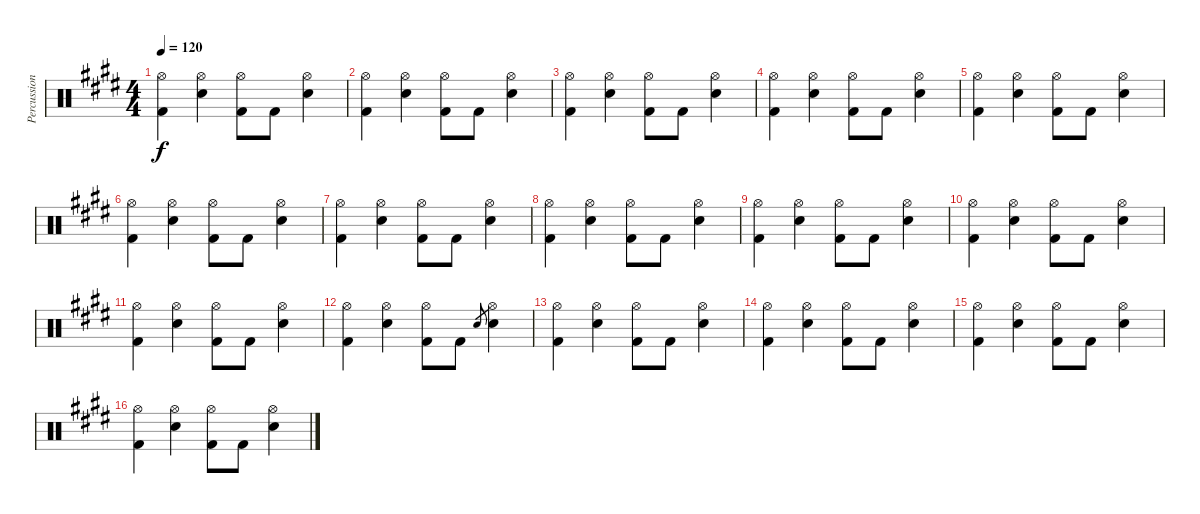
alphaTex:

\track ("Percussion" "Percussion") {instrument percussion}
\staff {score}
\articulation defaults
\ts (4 4)
\tempo 120
\clef neutral
\ks e
("Hi-Hat (open)" "Kick (hit) 2").4{dy f} ("Hi-Hat (open)" "Snare (hit) 2").4 ("Hi-Hat (open)" "Kick (hit) 2").8 "Kick (hit) 2".8 ("Hi-Hat (open)" "Snare (hit) 2").4 |
("Hi-Hat (open)" "Kick (hit) 2").4 ("Hi-Hat (open)" "Snare (hit) 2").4 ("Hi-Hat (open)" "Kick (hit) 2").8 "Kick (hit) 2".8 ("Hi-Hat (open)" "Snare (hit) 2").4 |
("Hi-Hat (open)" "Kick (hit) 2").4 ("Hi-Hat (open)" "Snare (hit) 2").4 ("Hi-Hat (open)" "Kick (hit) 2").8 "Kick (hit) 2".8 ("Hi-Hat (open)" "Snare (hit) 2").4 |
("Hi-Hat (open)" "Kick (hit) 2").4 ("Hi-Hat (open)" "Snare (hit) 2").4 ("Hi-Hat (open)" "Kick (hit) 2").8 "Kick (hit) 2".8 ("Hi-Hat (open)" "Snare (hit) 2").4 |
("Hi-Hat (open)" "Kick (hit) 2").4 ("Hi-Hat (open)" "Snare (hit) 2").4 ("Hi-Hat (open)" "Kick (hit) 2").8 "Kick (hit) 2".8 ("Hi-Hat (open)" "Snare (hit) 2").4 |
("Hi-Hat (open)" "Kick (hit) 2").4 ("Hi-Hat (open)" "Snare (hit) 2").4 ("Hi-Hat (open)" "Kick (hit) 2").8 "Kick (hit) 2".8 ("Hi-Hat (open)" "Snare (hit) 2").4 |
("Hi-Hat (open)" "Kick (hit) 2").4 ("Hi-Hat (open)" "Snare (hit) 2").4 ("Hi-Hat (open)" "Kick (hit) 2").8 "Kick (hit) 2".8 ("Hi-Hat (open)" "Snare (hit) 2").4 |
("Hi-Hat (open)" "Kick (hit) 2").4 ("Hi-Hat (open)" "Snare (hit) 2").4 ("Hi-Hat (open)" "Kick (hit) 2").8 "Kick (hit) 2".8 ("Hi-Hat (open)" "Snare (hit) 2").4 |
\ks c#minor
("Hi-Hat (open)" "Kick (hit) 2").4 ("Hi-Hat (open)" "Snare (hit) 2").4 ("Hi-Hat (open)" "Kick (hit) 2").8 "Kick (hit) 2".8 ("Hi-Hat (open)" "Snare (hit) 2").4 |
\ks e
("Hi-Hat (open)" "Kick (hit) 2").4 ("Hi-Hat (open)" "Snare (hit) 2").4 ("Hi-Hat (open)" "Kick (hit) 2").8 "Kick (hit) 2".8 ("Hi-Hat (open)" "Snare (hit) 2").4 |
\ks c#minor
("Hi-Hat (open)" "Kick (hit) 2").4 ("Hi-Hat (open)" "Snare (hit) 2").4 ("Hi-Hat (open)" "Kick (hit) 2").8 "Kick (hit) 2".8 ("Hi-Hat (open)" "Snare (hit) 2").4 |
\ks e
("Hi-Hat (open)" "Kick (hit) 2").4 ("Hi-Hat (open)" "Snare (hit) 2").4 ("Hi-Hat (open)" "Kick (hit) 2").8 "Kick (hit) 2".8 "Snare (hit) 2".8{gr} ("Hi-Hat (open)" "Snare (hit) 2").4 |
\ks c#minor
("Hi-Hat (open)" "Kick (hit) 2").4 ("Hi-Hat (open)" "Snare (hit) 2").4 ("Hi-Hat (open)" "Kick (hit) 2").8 "Kick (hit) 2".8 ("Hi-Hat (open)" "Snare (hit) 2").4 |
\ks e
("Hi-Hat (open)" "Kick (hit) 2").4 ("Hi-Hat (open)" "Snare (hit) 2").4 ("Hi-Hat (open)" "Kick (hit) 2").8 "Kick (hit) 2".8 ("Hi-Hat (open)" "Snare (hit) 2").4 |
\ks c#minor
("Hi-Hat (open)" "Kick (hit) 2").4 ("Hi-Hat (open)" "Snare (hit) 2").4 ("Hi-Hat (open)" "Kick (hit) 2").8 "Kick (hit) 2".8 ("Hi-Hat (open)" "Snare (hit) 2").4 |
\ks e
("Hi-Hat (open)" "Kick (hit) 2").4 ("Hi-Hat (open)" "Snare (hit) 2").4 ("Hi-Hat (open)" "Kick (hit) 2").8 "Kick (hit) 2".8 ("Hi-Hat (open)" "Snare (hit) 2").4
